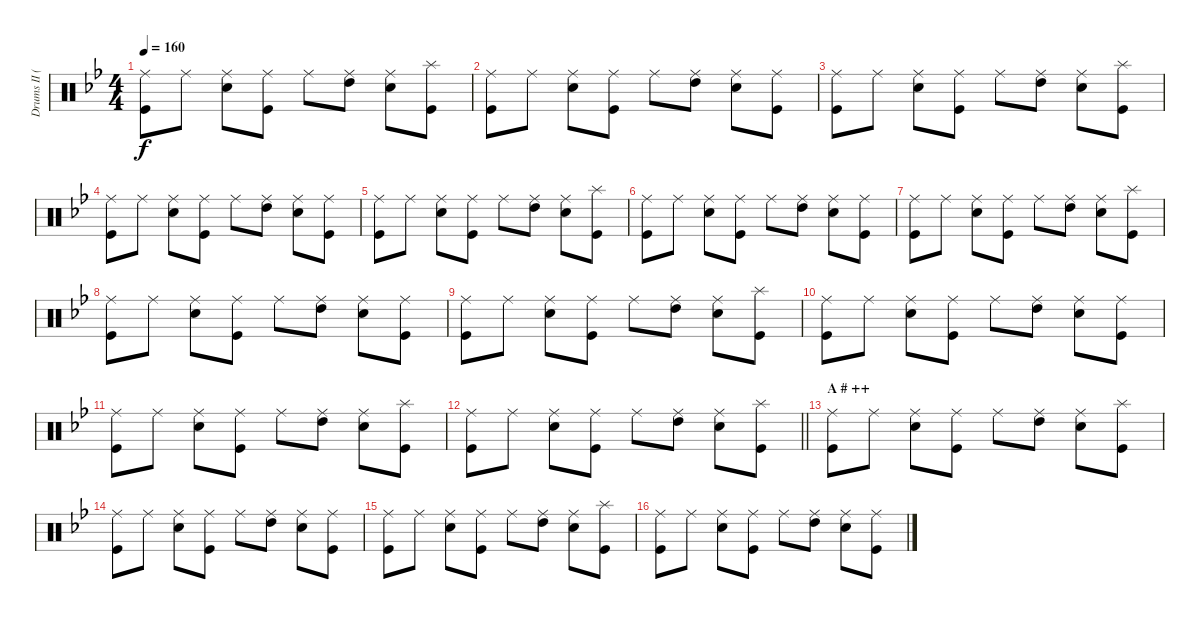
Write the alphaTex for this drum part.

\track ("Drums II (Tainaka Ritsu)" "Drums II (") {instrument percussion}
\staff {score}
\articulation defaults
\ts (4 4)
\tempo 160
\clef neutral
\ks bb
("Ride (middle)" "Kick (hit)").8{dy f} "Ride (middle)".8 ("Ride (middle)" "Snare (hit) 2").8 ("Ride (middle)" "Kick (hit)").8 "Ride (middle)".8 ("Ride (middle)" "High Tom (hit)").8 ("Ride (middle)" "Snare (hit) 2").8 ("Splash (hit)" "Kick (hit)").8 |
("Ride (middle)" "Kick (hit)").8 "Ride (middle)".8 ("Ride (middle)" "Snare (hit) 2").8 ("Ride (middle)" "Kick (hit)").8 "Ride (middle)".8 ("Ride (middle)" "High Tom (hit)").8 ("Ride (middle)" "Snare (hit) 2").8 ("Ride (middle)" "Kick (hit)").8 |
("Ride (middle)" "Kick (hit)").8 "Ride (middle)".8 ("Ride (middle)" "Snare (hit) 2").8 ("Ride (middle)" "Kick (hit)").8 "Ride (middle)".8 ("Ride (middle)" "High Tom (hit)").8 ("Ride (middle)" "Snare (hit) 2").8 ("Splash (hit)" "Kick (hit)").8 |
("Ride (middle)" "Kick (hit)").8 "Ride (middle)".8 ("Ride (middle)" "Snare (hit) 2").8 ("Ride (middle)" "Kick (hit)").8 "Ride (middle)".8 ("Ride (middle)" "High Tom (hit)").8 ("Ride (middle)" "Snare (hit) 2").8 ("Ride (middle)" "Kick (hit)").8 |
("Ride (middle)" "Kick (hit)").8 "Ride (middle)".8 ("Ride (middle)" "Snare (hit) 2").8 ("Ride (middle)" "Kick (hit)").8 "Ride (middle)".8 ("Ride (middle)" "High Tom (hit)").8 ("Ride (middle)" "Snare (hit) 2").8 ("Splash (hit)" "Kick (hit)").8 |
("Ride (middle)" "Kick (hit)").8 "Ride (middle)".8 ("Ride (middle)" "Snare (hit) 2").8 ("Ride (middle)" "Kick (hit)").8 "Ride (middle)".8 ("Ride (middle)" "High Tom (hit)").8 ("Ride (middle)" "Snare (hit) 2").8 ("Ride (middle)" "Kick (hit)").8 |
("Ride (middle)" "Kick (hit)").8 "Ride (middle)".8 ("Ride (middle)" "Snare (hit) 2").8 ("Ride (middle)" "Kick (hit)").8 "Ride (middle)".8 ("Ride (middle)" "High Tom (hit)").8 ("Ride (middle)" "Snare (hit) 2").8 ("Splash (hit)" "Kick (hit)").8 |
("Ride (middle)" "Kick (hit)").8 "Ride (middle)".8 ("Ride (middle)" "Snare (hit) 2").8 ("Ride (middle)" "Kick (hit)").8 "Ride (middle)".8 ("Ride (middle)" "High Tom (hit)").8 ("Ride (middle)" "Snare (hit) 2").8 ("Ride (middle)" "Kick (hit)").8 |
("Ride (middle)" "Kick (hit)").8 "Ride (middle)".8 ("Ride (middle)" "Snare (hit) 2").8 ("Ride (middle)" "Kick (hit)").8 "Ride (middle)".8 ("Ride (middle)" "High Tom (hit)").8 ("Ride (middle)" "Snare (hit) 2").8 ("Splash (hit)" "Kick (hit)").8 |
("Ride (middle)" "Kick (hit)").8 "Ride (middle)".8 ("Ride (middle)" "Snare (hit) 2").8 ("Ride (middle)" "Kick (hit)").8 "Ride (middle)".8 ("Ride (middle)" "High Tom (hit)").8 ("Ride (middle)" "Snare (hit) 2").8 ("Ride (middle)" "Kick (hit)").8 |
("Ride (middle)" "Kick (hit)").8 "Ride (middle)".8 ("Ride (middle)" "Snare (hit) 2").8 ("Ride (middle)" "Kick (hit)").8 "Ride (middle)".8 ("Ride (middle)" "High Tom (hit)").8 ("Ride (middle)" "Snare (hit) 2").8 ("Splash (hit)" "Kick (hit)").8 |
\barLineRight lightlight
("Ride (middle)" "Kick (hit)").8 "Ride (middle)".8 ("Ride (middle)" "Snare (hit) 2").8 ("Ride (middle)" "Kick (hit)").8 "Ride (middle)".8 ("Ride (middle)" "High Tom (hit)").8 ("Ride (middle)" "Snare (hit) 2").8 ("Splash (hit)" "Kick (hit)").8 |
\section ("" "A # ++")
("Ride (middle)" "Kick (hit)").8 "Ride (middle)".8 ("Ride (middle)" "Snare (hit) 2").8 ("Ride (middle)" "Kick (hit)").8 "Ride (middle)".8 ("Ride (middle)" "High Tom (hit)").8 ("Ride (middle)" "Snare (hit) 2").8 ("Splash (hit)" "Kick (hit)").8 |
("Ride (middle)" "Kick (hit)").8 "Ride (middle)".8 ("Ride (middle)" "Snare (hit) 2").8 ("Ride (middle)" "Kick (hit)").8 "Ride (middle)".8 ("Ride (middle)" "High Tom (hit)").8 ("Ride (middle)" "Snare (hit) 2").8 ("Ride (middle)" "Kick (hit)").8 |
("Ride (middle)" "Kick (hit)").8 "Ride (middle)".8 ("Ride (middle)" "Snare (hit) 2").8 ("Ride (middle)" "Kick (hit)").8 "Ride (middle)".8 ("Ride (middle)" "High Tom (hit)").8 ("Ride (middle)" "Snare (hit) 2").8 ("Splash (hit)" "Kick (hit)").8 |
("Ride (middle)" "Kick (hit)").8 "Ride (middle)".8 ("Ride (middle)" "Snare (hit) 2").8 ("Ride (middle)" "Kick (hit)").8 "Ride (middle)".8 ("Ride (middle)" "High Tom (hit)").8 ("Ride (middle)" "Snare (hit) 2").8 ("Ride (middle)" "Kick (hit)").8
